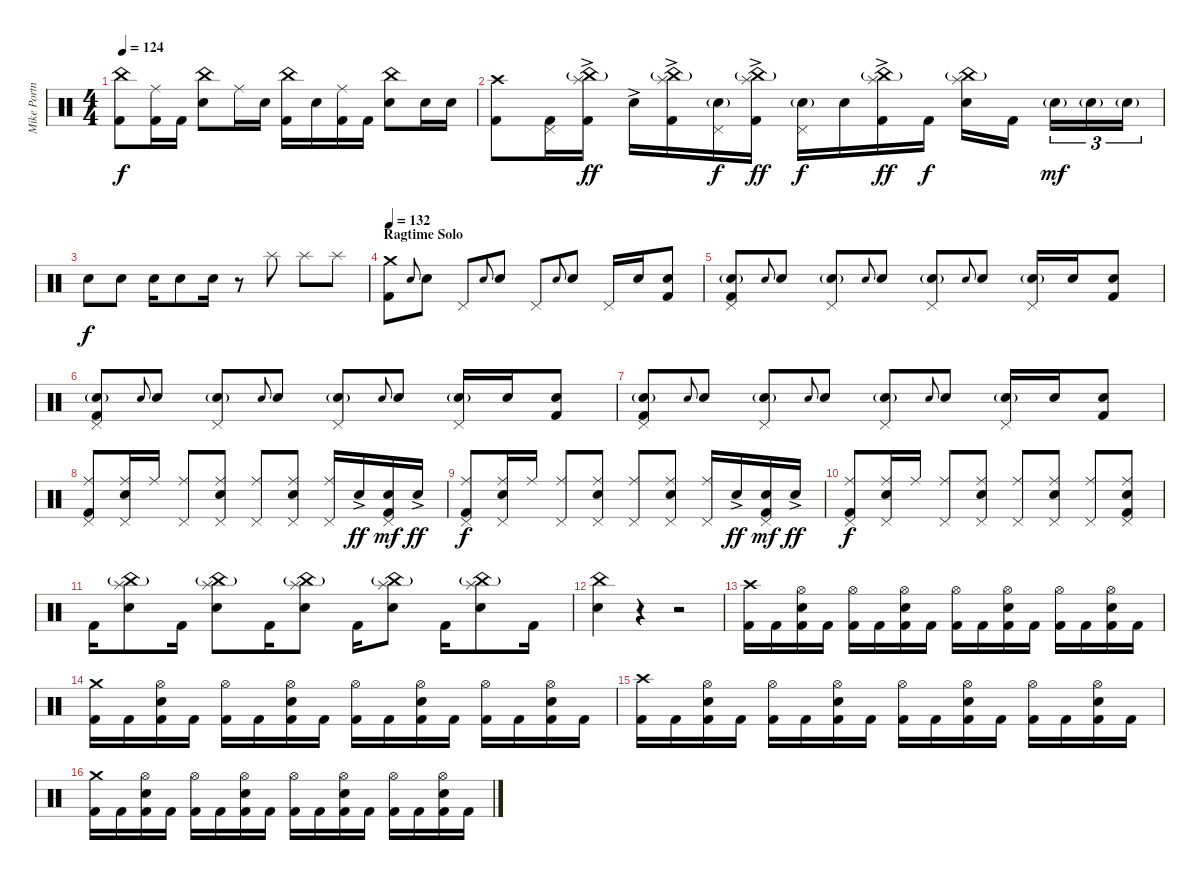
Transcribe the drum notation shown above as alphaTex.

\track ("Mike Portnoy" "Mike Portn") {instrument percussion}
\staff {score}
\articulation defaults
\ts (4 4)
\tempo 124
\clef neutral
\ks c
("China (hit)" "Kick (hit) 2").8{dy f} ("Ride (middle)" "Kick (hit) 2").16 "Kick (hit) 2".16 ("China (hit)" "Electric Snare (hit)").8 "Ride (middle)".16 "Electric Snare (hit)".16 ("China (hit)" "Kick (hit) 2").16 "Electric Snare (hit)".16 ("Ride (middle)" "Kick (hit) 2").16 "Kick (hit) 2".16 ("China (hit)" "Electric Snare (hit)").8 "Electric Snare (hit)".16 "Electric Snare (hit)".16 |
("Crash high (hit)" "Kick (hit) 2").8 ("Pedal Hi-Hat (hit)" "Kick (hit) 2").16 ("China (hit)"{g} "Splash (hit)"{ac} "Kick (hit) 2"{ac}).16{dy ff} "Electric Snare (hit)"{ac}.16 ("China (hit)"{g} "Splash (hit)"{ac} "Kick (hit) 2"{ac}).16 ("Electric Snare (hit)"{g} "Pedal Hi-Hat (hit)").16{dy f} ("China (hit)"{g} "Splash (hit)"{ac} "Kick (hit) 2"{ac}).16{dy ff} ("Electric Snare (hit)"{g} "Pedal Hi-Hat (hit)").16{dy f} "Electric Snare (hit)".16 ("China (hit)"{g} "Splash (hit)"{ac} "Kick (hit) 2"{ac}).16{dy ff} "Kick (hit) 2".16{dy f} ("China (hit)"{g} "Splash (hit)" "Electric Snare (hit)").16 "Kick (hit) 2".16 "Electric Snare (hit)"{g}.16{tu (3 2) dy mf} "Electric Snare (hit)"{g}.16{tu (3 2)} "Electric Snare (hit)"{g}.16{tu (3 2)} |
"Electric Snare (hit)".8{dy f} "Electric Snare (hit)".8 "Electric Snare (hit)".16 "Electric Snare (hit)".8 "Electric Snare (hit)".16 r.8 "Splash (hit)".8 "Splash (hit)".8 "Splash (hit)".8 |
\section ("" "Ragtime Solo")
\tempo 132
("Crash medium (hit)" "Kick (hit) 2").8 "Electric Snare (hit)"{h}.8{gr onbeat} "Electric Snare (hit)".8 "Pedal Hi-Hat (hit)".8 "Electric Snare (hit)"{h}.8{gr onbeat} "Electric Snare (hit)".8 "Pedal Hi-Hat (hit)".8 "Electric Snare (hit)"{h}.8{gr onbeat} "Electric Snare (hit)".8 "Pedal Hi-Hat (hit)".16 "Electric Snare (hit)".16 ("Electric Snare (hit)" "Kick (hit) 2").8 |
("Electric Snare (hit)"{g} "Pedal Hi-Hat (hit)" "Kick (hit) 2").8 "Electric Snare (hit)"{h}.8{gr onbeat} "Electric Snare (hit)".8 ("Electric Snare (hit)"{g} "Pedal Hi-Hat (hit)").8 "Electric Snare (hit)"{h}.8{gr onbeat} "Electric Snare (hit)".8 ("Electric Snare (hit)"{g} "Pedal Hi-Hat (hit)").8 "Electric Snare (hit)"{h}.8{gr onbeat} "Electric Snare (hit)".8 ("Electric Snare (hit)"{g} "Pedal Hi-Hat (hit)").16 "Electric Snare (hit)".16 ("Electric Snare (hit)" "Kick (hit) 2").8 |
("Electric Snare (hit)"{g} "Pedal Hi-Hat (hit)" "Kick (hit) 2").8 "Electric Snare (hit)"{h}.8{gr onbeat} "Electric Snare (hit)".8 ("Electric Snare (hit)"{g} "Pedal Hi-Hat (hit)").8 "Electric Snare (hit)"{h}.8{gr onbeat} "Electric Snare (hit)".8 ("Electric Snare (hit)"{g} "Pedal Hi-Hat (hit)").8 "Electric Snare (hit)"{h}.8{gr onbeat} "Electric Snare (hit)".8 ("Electric Snare (hit)"{g} "Pedal Hi-Hat (hit)").16 "Electric Snare (hit)".16 ("Electric Snare (hit)" "Kick (hit) 2").8 |
("Electric Snare (hit)"{g} "Pedal Hi-Hat (hit)" "Kick (hit) 2").8 "Electric Snare (hit)"{h}.8{gr onbeat} "Electric Snare (hit)".8 ("Electric Snare (hit)"{g} "Pedal Hi-Hat (hit)").8 "Electric Snare (hit)"{h}.8{gr onbeat} "Electric Snare (hit)".8 ("Electric Snare (hit)"{g} "Pedal Hi-Hat (hit)").8 "Electric Snare (hit)"{h}.8{gr onbeat} "Electric Snare (hit)".8 ("Electric Snare (hit)"{g} "Pedal Hi-Hat (hit)").16 "Electric Snare (hit)".16 ("Electric Snare (hit)" "Kick (hit) 2").8 |
("Ride (middle)" "Pedal Hi-Hat (hit)" "Kick (hit) 2").8 ("Ride (middle)" "Electric Snare (hit)" "Pedal Hi-Hat (hit)").16 "Ride (middle)".16 ("Ride (middle)" "Pedal Hi-Hat (hit)").8 ("Ride (middle)" "Electric Snare (hit)" "Pedal Hi-Hat (hit)").8 ("Ride (middle)" "Pedal Hi-Hat (hit)").8 ("Ride (middle)" "Electric Snare (hit)" "Pedal Hi-Hat (hit)").8 ("Ride (middle)" "Pedal Hi-Hat (hit)").16 "Electric Snare (hit)"{ac}.16{dy ff} ("Electric Snare (hit)" "Pedal Hi-Hat (hit)" "Kick (hit) 2").16{dy mf} "Electric Snare (hit)"{ac}.16{dy ff} |
("Ride (middle)" "Pedal Hi-Hat (hit)" "Kick (hit) 2").8{dy f} ("Ride (middle)" "Electric Snare (hit)" "Pedal Hi-Hat (hit)").16 "Ride (middle)".16 ("Ride (middle)" "Pedal Hi-Hat (hit)").8 ("Ride (middle)" "Electric Snare (hit)" "Pedal Hi-Hat (hit)").8 ("Ride (middle)" "Pedal Hi-Hat (hit)").8 ("Ride (middle)" "Electric Snare (hit)" "Pedal Hi-Hat (hit)").8 ("Ride (middle)" "Pedal Hi-Hat (hit)").16 "Electric Snare (hit)"{ac}.16{dy ff} ("Electric Snare (hit)" "Pedal Hi-Hat (hit)" "Kick (hit) 2").16{dy mf} "Electric Snare (hit)"{ac}.16{dy ff} |
("Ride (middle)" "Pedal Hi-Hat (hit)" "Kick (hit) 2").8{dy f} ("Ride (middle)" "Electric Snare (hit)" "Pedal Hi-Hat (hit)").16 "Ride (middle)".16 ("Ride (middle)" "Pedal Hi-Hat (hit)").8 ("Ride (middle)" "Electric Snare (hit)" "Pedal Hi-Hat (hit)").8 ("Ride (middle)" "Pedal Hi-Hat (hit)").8 ("Ride (middle)" "Electric Snare (hit)" "Pedal Hi-Hat (hit)").8 ("Ride (middle)" "Pedal Hi-Hat (hit)").8 ("Ride (middle)" "Electric Snare (hit)" "Pedal Hi-Hat (hit)" "Kick (hit) 2").8 |
"Kick (hit) 2".16 ("China (hit)"{g} "Splash (hit)" "Electric Snare (hit)").8 "Kick (hit) 2".16 ("China (hit)"{g} "Splash (hit)" "Electric Snare (hit)").8 "Kick (hit) 2".16 ("China (hit)"{g} "Splash (hit)" "Electric Snare (hit)").8 "Kick (hit) 2".16 ("China (hit)"{g} "Splash (hit)" "Electric Snare (hit)").8 "Kick (hit) 2".16 ("China (hit)"{g} "Splash (hit)" "Electric Snare (hit)").8 "Kick (hit) 2".16 |
("China (hit)" "Electric Snare (hit)").4 r.4 r.2 |
("Crash high (hit)" "Kick (hit) 2").16 "Kick (hit) 2".16 ("Hi-Hat (open)" "Electric Snare (hit)" "Kick (hit) 2").16 "Kick (hit) 2".16 ("Hi-Hat (open)" "Kick (hit) 2").16 "Kick (hit) 2".16 ("Hi-Hat (open)" "Electric Snare (hit)" "Kick (hit) 2").16 "Kick (hit) 2".16 ("Hi-Hat (open)" "Kick (hit) 2").16 "Kick (hit) 2".16 ("Hi-Hat (open)" "Electric Snare (hit)" "Kick (hit) 2").16 "Kick (hit) 2".16 ("Hi-Hat (open)" "Kick (hit) 2").16 "Kick (hit) 2".16 ("Hi-Hat (open)" "Electric Snare (hit)" "Kick (hit) 2").16 "Kick (hit) 2".16 |
("Crash medium (hit)" "Kick (hit) 2").16 "Kick (hit) 2".16 ("Hi-Hat (open)" "Electric Snare (hit)" "Kick (hit) 2").16 "Kick (hit) 2".16 ("Hi-Hat (open)" "Kick (hit) 2").16 "Kick (hit) 2".16 ("Hi-Hat (open)" "Electric Snare (hit)" "Kick (hit) 2").16 "Kick (hit) 2".16 ("Hi-Hat (open)" "Kick (hit) 2").16 "Kick (hit) 2".16 ("Hi-Hat (open)" "Electric Snare (hit)" "Kick (hit) 2").16 "Kick (hit) 2".16 ("Hi-Hat (open)" "Kick (hit) 2").16 "Kick (hit) 2".16 ("Hi-Hat (open)" "Electric Snare (hit)" "Kick (hit) 2").16 "Kick (hit) 2".16 |
("Crash high (hit)" "Kick (hit) 2").16 "Kick (hit) 2".16 ("Hi-Hat (open)" "Electric Snare (hit)" "Kick (hit) 2").16 "Kick (hit) 2".16 ("Hi-Hat (open)" "Kick (hit) 2").16 "Kick (hit) 2".16 ("Hi-Hat (open)" "Electric Snare (hit)" "Kick (hit) 2").16 "Kick (hit) 2".16 ("Hi-Hat (open)" "Kick (hit) 2").16 "Kick (hit) 2".16 ("Hi-Hat (open)" "Electric Snare (hit)" "Kick (hit) 2").16 "Kick (hit) 2".16 ("Hi-Hat (open)" "Kick (hit) 2").16 "Kick (hit) 2".16 ("Hi-Hat (open)" "Electric Snare (hit)" "Kick (hit) 2").16 "Kick (hit) 2".16 |
("Crash medium (hit)" "Kick (hit) 2").16 "Kick (hit) 2".16 ("Hi-Hat (open)" "Electric Snare (hit)" "Kick (hit) 2").16 "Kick (hit) 2".16 ("Hi-Hat (open)" "Kick (hit) 2").16 "Kick (hit) 2".16 ("Hi-Hat (open)" "Electric Snare (hit)" "Kick (hit) 2").16 "Kick (hit) 2".16 ("Hi-Hat (open)" "Kick (hit) 2").16 "Kick (hit) 2".16 ("Hi-Hat (open)" "Electric Snare (hit)" "Kick (hit) 2").16 "Kick (hit) 2".16 ("Hi-Hat (open)" "Kick (hit) 2").16 "Kick (hit) 2".16 ("Hi-Hat (open)" "Electric Snare (hit)" "Kick (hit) 2").16 "Kick (hit) 2".16
